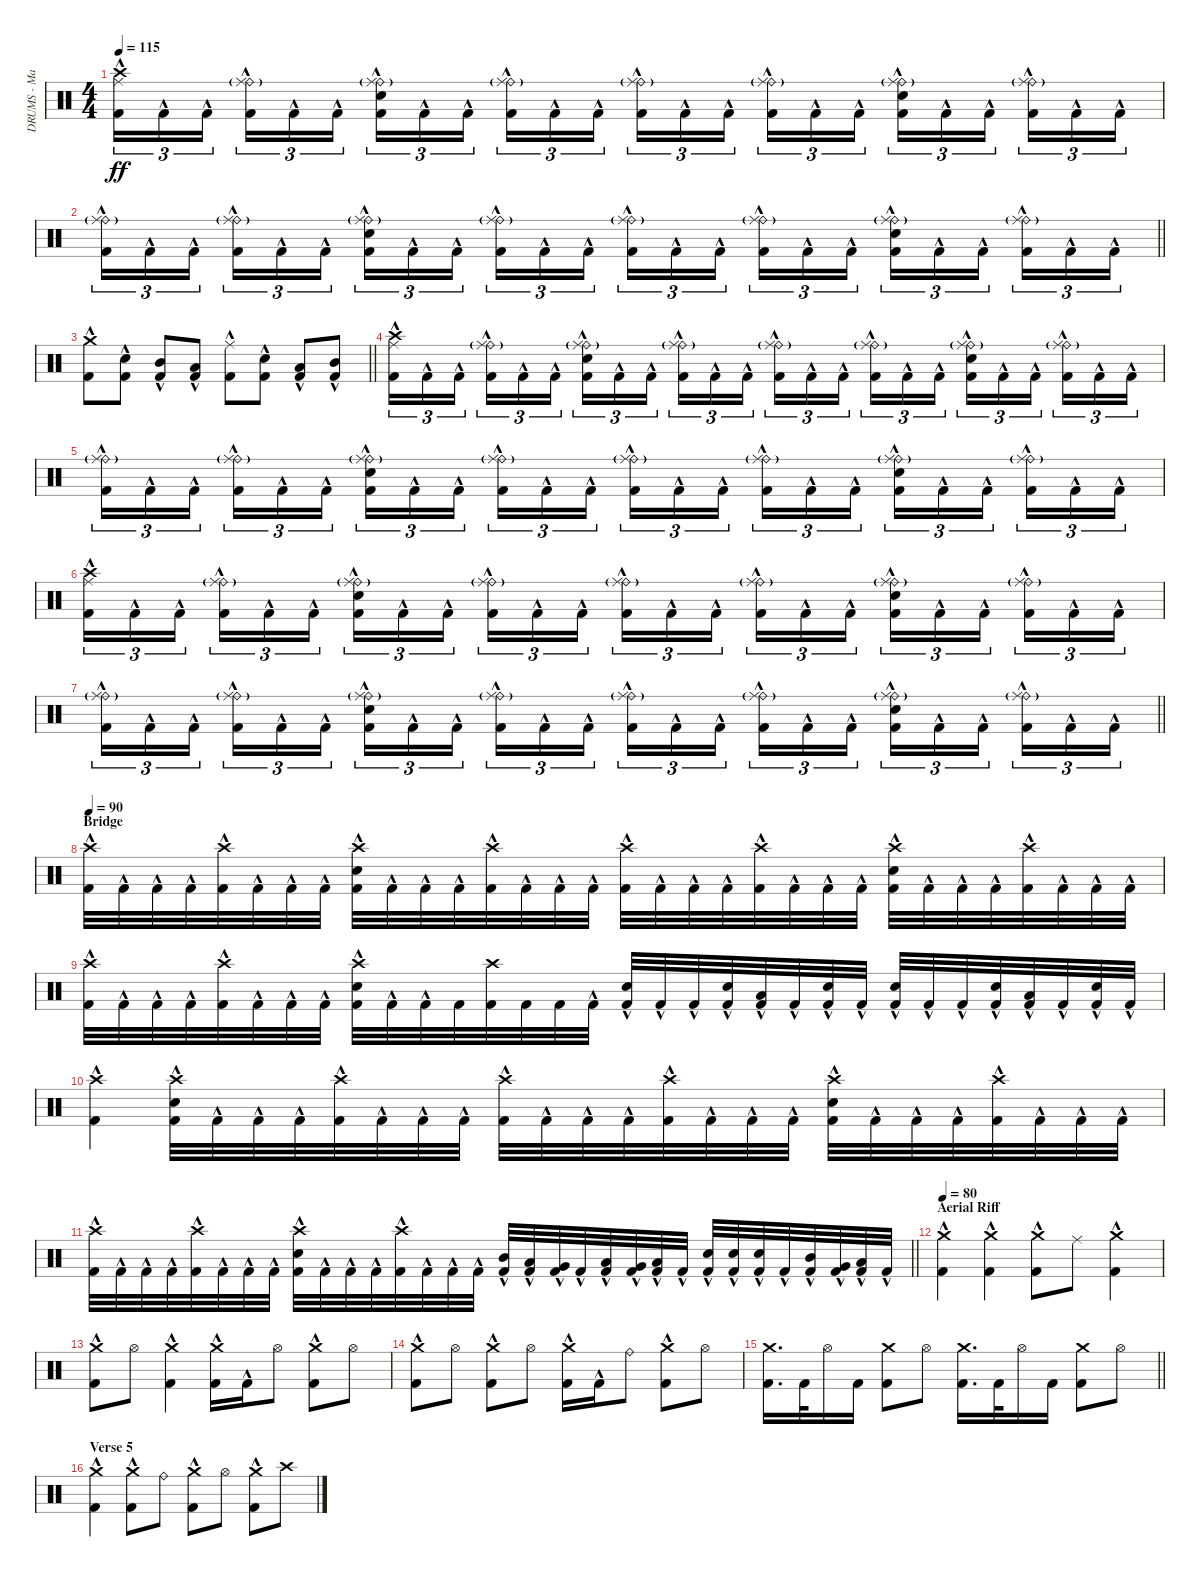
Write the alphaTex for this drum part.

\track ("DRUMS - Mario Duplantier" "DRUMS - Ma") {instrument percussion}
\staff {score}
\articulation defaults
\ts (4 4)
\tempo 115
\clef neutral
\ks c
("Crash high (hit)" "Ride (middle)" "Kick (hit) 2"{hac}).16{tu (3 2) dy ff} "Kick (hit) 2"{hac}.16{tu (3 2)} "Kick (hit) 2"{hac}.16{tu (3 2) beam splitsecondary} ("Ride (bell)"{g} "Ride (middle)" "Kick (hit) 2"{hac}).16{tu (3 2)} "Kick (hit) 2"{hac}.16{tu (3 2)} "Kick (hit) 2"{hac}.16{tu (3 2)} ("Ride (bell)"{g} "Ride (middle)" "Electric Snare (hit)" "Kick (hit) 2"{hac}).16{tu (3 2)} "Kick (hit) 2"{hac}.16{tu (3 2)} "Kick (hit) 2"{hac}.16{tu (3 2) beam splitsecondary} ("Ride (bell)"{g} "Ride (middle)" "Kick (hit) 2"{hac}).16{tu (3 2)} "Kick (hit) 2"{hac}.16{tu (3 2)} "Kick (hit) 2"{hac}.16{tu (3 2)} ("Ride (bell)"{g} "Ride (middle)" "Kick (hit) 2"{hac}).16{tu (3 2)} "Kick (hit) 2"{hac}.16{tu (3 2)} "Kick (hit) 2"{hac}.16{tu (3 2) beam splitsecondary} ("Ride (bell)"{g} "Ride (middle)" "Kick (hit) 2"{hac}).16{tu (3 2)} "Kick (hit) 2"{hac}.16{tu (3 2)} "Kick (hit) 2"{hac}.16{tu (3 2)} ("Ride (bell)"{g} "Ride (middle)" "Electric Snare (hit)" "Kick (hit) 2"{hac}).16{tu (3 2)} "Kick (hit) 2"{hac}.16{tu (3 2)} "Kick (hit) 2"{hac}.16{tu (3 2) beam splitsecondary} ("Ride (bell)"{g} "Ride (middle)" "Kick (hit) 2"{hac}).16{tu (3 2)} "Kick (hit) 2"{hac}.16{tu (3 2)} "Kick (hit) 2"{hac}.16{tu (3 2)} |
\barLineRight lightlight
("Ride (bell)"{g} "Ride (middle)" "Kick (hit) 2"{hac}).16{tu (3 2)} "Kick (hit) 2"{hac}.16{tu (3 2)} "Kick (hit) 2"{hac}.16{tu (3 2) beam splitsecondary} ("Ride (bell)"{g} "Ride (middle)" "Kick (hit) 2"{hac}).16{tu (3 2)} "Kick (hit) 2"{hac}.16{tu (3 2)} "Kick (hit) 2"{hac}.16{tu (3 2)} ("Ride (bell)"{g} "Ride (middle)" "Electric Snare (hit)" "Kick (hit) 2"{hac}).16{tu (3 2)} "Kick (hit) 2"{hac}.16{tu (3 2)} "Kick (hit) 2"{hac}.16{tu (3 2) beam splitsecondary} ("Ride (bell)"{g} "Ride (middle)" "Kick (hit) 2"{hac}).16{tu (3 2)} "Kick (hit) 2"{hac}.16{tu (3 2)} "Kick (hit) 2"{hac}.16{tu (3 2)} ("Ride (bell)"{g} "Ride (middle)" "Kick (hit) 2"{hac}).16{tu (3 2)} "Kick (hit) 2"{hac}.16{tu (3 2)} "Kick (hit) 2"{hac}.16{tu (3 2) beam splitsecondary} ("Ride (bell)"{g} "Ride (middle)" "Kick (hit) 2"{hac}).16{tu (3 2)} "Kick (hit) 2"{hac}.16{tu (3 2)} "Kick (hit) 2"{hac}.16{tu (3 2)} ("Ride (bell)"{g} "Ride (middle)" "Electric Snare (hit)" "Kick (hit) 2"{hac}).16{tu (3 2)} "Kick (hit) 2"{hac}.16{tu (3 2)} "Kick (hit) 2"{hac}.16{tu (3 2) beam splitsecondary} ("Ride (bell)"{g} "Ride (middle)" "Kick (hit) 2"{hac}).16{tu (3 2)} "Kick (hit) 2"{hac}.16{tu (3 2)} "Kick (hit) 2"{hac}.16{tu (3 2)} |
\section ("" "")
\barLineRight lightlight
("Crash medium (hit)" "Kick (hit) 2"{hac}).8 ("Electric Snare (hit)" "Kick (hit) 2"{hac}).8 ("Mid Tom (hit)" "Kick (hit) 2"{hac}).8 ("Low Tom (hit)" "Kick (hit) 2"{hac}).8 ("Ride (middle)" "Kick (hit) 2"{hac}).8 ("Electric Snare (hit)" "Kick (hit) 2"{hac}).8 ("Low Tom (hit)" "Kick (hit) 2"{hac}).8 ("Mid Tom (hit)" "Kick (hit) 2"{hac}).8 |
\section ("" "")
("Crash high (hit)" "Ride (middle)" "Kick (hit) 2"{hac}).16{tu (3 2)} "Kick (hit) 2"{hac}.16{tu (3 2)} "Kick (hit) 2"{hac}.16{tu (3 2) beam splitsecondary} ("Ride (bell)"{g} "Ride (middle)" "Kick (hit) 2"{hac}).16{tu (3 2)} "Kick (hit) 2"{hac}.16{tu (3 2)} "Kick (hit) 2"{hac}.16{tu (3 2)} ("Ride (bell)"{g} "Ride (middle)" "Electric Snare (hit)" "Kick (hit) 2"{hac}).16{tu (3 2)} "Kick (hit) 2"{hac}.16{tu (3 2)} "Kick (hit) 2"{hac}.16{tu (3 2) beam splitsecondary} ("Ride (bell)"{g} "Ride (middle)" "Kick (hit) 2"{hac}).16{tu (3 2)} "Kick (hit) 2"{hac}.16{tu (3 2)} "Kick (hit) 2"{hac}.16{tu (3 2)} ("Ride (bell)"{g} "Ride (middle)" "Kick (hit) 2"{hac}).16{tu (3 2)} "Kick (hit) 2"{hac}.16{tu (3 2)} "Kick (hit) 2"{hac}.16{tu (3 2) beam splitsecondary} ("Ride (bell)"{g} "Ride (middle)" "Kick (hit) 2"{hac}).16{tu (3 2)} "Kick (hit) 2"{hac}.16{tu (3 2)} "Kick (hit) 2"{hac}.16{tu (3 2)} ("Ride (bell)"{g} "Ride (middle)" "Electric Snare (hit)" "Kick (hit) 2"{hac}).16{tu (3 2)} "Kick (hit) 2"{hac}.16{tu (3 2)} "Kick (hit) 2"{hac}.16{tu (3 2) beam splitsecondary} ("Ride (bell)"{g} "Ride (middle)" "Kick (hit) 2"{hac}).16{tu (3 2)} "Kick (hit) 2"{hac}.16{tu (3 2)} "Kick (hit) 2"{hac}.16{tu (3 2)} |
("Ride (bell)"{g} "Ride (middle)" "Kick (hit) 2"{hac}).16{tu (3 2)} "Kick (hit) 2"{hac}.16{tu (3 2)} "Kick (hit) 2"{hac}.16{tu (3 2) beam splitsecondary} ("Ride (bell)"{g} "Ride (middle)" "Kick (hit) 2"{hac}).16{tu (3 2)} "Kick (hit) 2"{hac}.16{tu (3 2)} "Kick (hit) 2"{hac}.16{tu (3 2)} ("Ride (bell)"{g} "Ride (middle)" "Electric Snare (hit)" "Kick (hit) 2"{hac}).16{tu (3 2)} "Kick (hit) 2"{hac}.16{tu (3 2)} "Kick (hit) 2"{hac}.16{tu (3 2) beam splitsecondary} ("Ride (bell)"{g} "Ride (middle)" "Kick (hit) 2"{hac}).16{tu (3 2)} "Kick (hit) 2"{hac}.16{tu (3 2)} "Kick (hit) 2"{hac}.16{tu (3 2)} ("Ride (bell)"{g} "Ride (middle)" "Kick (hit) 2"{hac}).16{tu (3 2)} "Kick (hit) 2"{hac}.16{tu (3 2)} "Kick (hit) 2"{hac}.16{tu (3 2) beam splitsecondary} ("Ride (bell)"{g} "Ride (middle)" "Kick (hit) 2"{hac}).16{tu (3 2)} "Kick (hit) 2"{hac}.16{tu (3 2)} "Kick (hit) 2"{hac}.16{tu (3 2)} ("Ride (bell)"{g} "Ride (middle)" "Electric Snare (hit)" "Kick (hit) 2"{hac}).16{tu (3 2)} "Kick (hit) 2"{hac}.16{tu (3 2)} "Kick (hit) 2"{hac}.16{tu (3 2) beam splitsecondary} ("Ride (bell)"{g} "Ride (middle)" "Kick (hit) 2"{hac}).16{tu (3 2)} "Kick (hit) 2"{hac}.16{tu (3 2)} "Kick (hit) 2"{hac}.16{tu (3 2)} |
("Crash high (hit)" "Ride (middle)" "Kick (hit) 2"{hac}).16{tu (3 2)} "Kick (hit) 2"{hac}.16{tu (3 2)} "Kick (hit) 2"{hac}.16{tu (3 2) beam splitsecondary} ("Ride (bell)"{g} "Ride (middle)" "Kick (hit) 2"{hac}).16{tu (3 2)} "Kick (hit) 2"{hac}.16{tu (3 2)} "Kick (hit) 2"{hac}.16{tu (3 2)} ("Ride (bell)"{g} "Ride (middle)" "Electric Snare (hit)" "Kick (hit) 2"{hac}).16{tu (3 2)} "Kick (hit) 2"{hac}.16{tu (3 2)} "Kick (hit) 2"{hac}.16{tu (3 2) beam splitsecondary} ("Ride (bell)"{g} "Ride (middle)" "Kick (hit) 2"{hac}).16{tu (3 2)} "Kick (hit) 2"{hac}.16{tu (3 2)} "Kick (hit) 2"{hac}.16{tu (3 2)} ("Ride (bell)"{g} "Ride (middle)" "Kick (hit) 2"{hac}).16{tu (3 2)} "Kick (hit) 2"{hac}.16{tu (3 2)} "Kick (hit) 2"{hac}.16{tu (3 2) beam splitsecondary} ("Ride (bell)"{g} "Ride (middle)" "Kick (hit) 2"{hac}).16{tu (3 2)} "Kick (hit) 2"{hac}.16{tu (3 2)} "Kick (hit) 2"{hac}.16{tu (3 2)} ("Ride (bell)"{g} "Ride (middle)" "Electric Snare (hit)" "Kick (hit) 2"{hac}).16{tu (3 2)} "Kick (hit) 2"{hac}.16{tu (3 2)} "Kick (hit) 2"{hac}.16{tu (3 2) beam splitsecondary} ("Ride (bell)"{g} "Ride (middle)" "Kick (hit) 2"{hac}).16{tu (3 2)} "Kick (hit) 2"{hac}.16{tu (3 2)} "Kick (hit) 2"{hac}.16{tu (3 2)} |
\barLineRight lightlight
("Ride (bell)"{g} "Ride (middle)" "Kick (hit) 2"{hac}).16{tu (3 2)} "Kick (hit) 2"{hac}.16{tu (3 2)} "Kick (hit) 2"{hac}.16{tu (3 2) beam splitsecondary} ("Ride (bell)"{g} "Ride (middle)" "Kick (hit) 2"{hac}).16{tu (3 2)} "Kick (hit) 2"{hac}.16{tu (3 2)} "Kick (hit) 2"{hac}.16{tu (3 2)} ("Ride (bell)"{g} "Ride (middle)" "Electric Snare (hit)" "Kick (hit) 2"{hac}).16{tu (3 2)} "Kick (hit) 2"{hac}.16{tu (3 2)} "Kick (hit) 2"{hac}.16{tu (3 2) beam splitsecondary} ("Ride (bell)"{g} "Ride (middle)" "Kick (hit) 2"{hac}).16{tu (3 2)} "Kick (hit) 2"{hac}.16{tu (3 2)} "Kick (hit) 2"{hac}.16{tu (3 2)} ("Ride (bell)"{g} "Ride (middle)" "Kick (hit) 2"{hac}).16{tu (3 2)} "Kick (hit) 2"{hac}.16{tu (3 2)} "Kick (hit) 2"{hac}.16{tu (3 2) beam splitsecondary} ("Ride (bell)"{g} "Ride (middle)" "Kick (hit) 2"{hac}).16{tu (3 2)} "Kick (hit) 2"{hac}.16{tu (3 2)} "Kick (hit) 2"{hac}.16{tu (3 2)} ("Ride (bell)"{g} "Ride (middle)" "Electric Snare (hit)" "Kick (hit) 2"{hac}).16{tu (3 2)} "Kick (hit) 2"{hac}.16{tu (3 2)} "Kick (hit) 2"{hac}.16{tu (3 2) beam splitsecondary} ("Ride (bell)"{g} "Ride (middle)" "Kick (hit) 2"{hac}).16{tu (3 2)} "Kick (hit) 2"{hac}.16{tu (3 2)} "Kick (hit) 2"{hac}.16{tu (3 2)} |
\section ("" "Bridge")
\tempo 90
("Crash high (hit)" "Kick (hit) 2"{hac}).32 "Kick (hit) 2"{hac}.32 "Kick (hit) 2"{hac}.32 "Kick (hit) 2"{hac}.32 ("Crash high (hit)" "Kick (hit) 2"{hac}).32 "Kick (hit) 2"{hac}.32 "Kick (hit) 2"{hac}.32 "Kick (hit) 2"{hac}.32 ("Crash high (hit)" "Electric Snare (hit)" "Kick (hit) 2"{hac}).32 "Kick (hit) 2"{hac}.32 "Kick (hit) 2"{hac}.32 "Kick (hit) 2"{hac}.32 ("Crash high (hit)" "Kick (hit) 2"{hac}).32 "Kick (hit) 2"{hac}.32 "Kick (hit) 2"{hac}.32 "Kick (hit) 2"{hac}.32 ("Crash high (hit)" "Kick (hit) 2"{hac}).32 "Kick (hit) 2"{hac}.32 "Kick (hit) 2"{hac}.32 "Kick (hit) 2"{hac}.32 ("Crash high (hit)" "Kick (hit) 2"{hac}).32 "Kick (hit) 2"{hac}.32 "Kick (hit) 2"{hac}.32 "Kick (hit) 2"{hac}.32 ("Crash high (hit)" "Electric Snare (hit)" "Kick (hit) 2"{hac}).32 "Kick (hit) 2"{hac}.32 "Kick (hit) 2"{hac}.32 "Kick (hit) 2"{hac}.32 ("Crash high (hit)" "Kick (hit) 2"{hac}).32 "Kick (hit) 2"{hac}.32 "Kick (hit) 2"{hac}.32 "Kick (hit) 2"{hac}.32 |
("Crash high (hit)" "Kick (hit) 2"{hac}).32 "Kick (hit) 2"{hac}.32 "Kick (hit) 2"{hac}.32 "Kick (hit) 2"{hac}.32 ("Crash high (hit)" "Kick (hit) 2"{hac}).32 "Kick (hit) 2"{hac}.32 "Kick (hit) 2"{hac}.32 "Kick (hit) 2"{hac}.32 ("Crash high (hit)" "Electric Snare (hit)" "Kick (hit) 2"{hac}).32 "Kick (hit) 2"{hac}.32 "Kick (hit) 2"{hac}.32 "Kick (hit) 2".32 ("Crash high (hit)" "Kick (hit) 2").32 "Kick (hit) 2".32 "Kick (hit) 2".32 "Kick (hit) 2"{hac}.32 ("Electric Snare (hit)" "Kick (hit) 2"{hac}).32 "Kick (hit) 2"{hac}.32 "Kick (hit) 2"{hac}.32 ("Electric Snare (hit)" "Kick (hit) 2"{hac}).32 ("Low Tom (hit)" "Kick (hit) 2"{hac}).32 "Kick (hit) 2"{hac}.32 ("Electric Snare (hit)" "Kick (hit) 2"{hac}).32 "Kick (hit) 2"{hac}.32 ("Electric Snare (hit)" "Kick (hit) 2"{hac}).32 "Kick (hit) 2"{hac}.32 "Kick (hit) 2"{hac}.32 ("Electric Snare (hit)" "Kick (hit) 2"{hac}).32 ("Low Tom (hit)" "Kick (hit) 2"{hac}).32 "Kick (hit) 2"{hac}.32 ("Electric Snare (hit)" "Kick (hit) 2"{hac}).32 "Kick (hit) 2"{hac}.32 |
("Crash high (hit)" "Kick (hit) 2"{hac}).4 ("Crash high (hit)" "Electric Snare (hit)" "Kick (hit) 2"{hac}).32 "Kick (hit) 2"{hac}.32 "Kick (hit) 2"{hac}.32 "Kick (hit) 2"{hac}.32 ("Crash high (hit)" "Kick (hit) 2"{hac}).32 "Kick (hit) 2"{hac}.32 "Kick (hit) 2"{hac}.32 "Kick (hit) 2"{hac}.32 ("Crash high (hit)" "Kick (hit) 2"{hac}).32 "Kick (hit) 2"{hac}.32 "Kick (hit) 2"{hac}.32 "Kick (hit) 2"{hac}.32 ("Crash high (hit)" "Kick (hit) 2"{hac}).32 "Kick (hit) 2"{hac}.32 "Kick (hit) 2"{hac}.32 "Kick (hit) 2"{hac}.32 ("Crash high (hit)" "Electric Snare (hit)" "Kick (hit) 2"{hac}).32 "Kick (hit) 2"{hac}.32 "Kick (hit) 2"{hac}.32 "Kick (hit) 2"{hac}.32 ("Crash high (hit)" "Kick (hit) 2"{hac}).32 "Kick (hit) 2"{hac}.32 "Kick (hit) 2"{hac}.32 "Kick (hit) 2"{hac}.32 |
\barLineRight lightlight
("Crash high (hit)" "Kick (hit) 2"{hac}).32 "Kick (hit) 2"{hac}.32 "Kick (hit) 2"{hac}.32 "Kick (hit) 2"{hac}.32 ("Crash high (hit)" "Kick (hit) 2"{hac}).32 "Kick (hit) 2"{hac}.32 "Kick (hit) 2"{hac}.32 "Kick (hit) 2"{hac}.32 ("Crash high (hit)" "Electric Snare (hit)" "Kick (hit) 2"{hac}).32 "Kick (hit) 2"{hac}.32 "Kick (hit) 2"{hac}.32 "Kick (hit) 2"{hac}.32 ("Crash high (hit)" "Kick (hit) 2"{hac}).32 "Kick (hit) 2"{hac}.32 "Kick (hit) 2"{hac}.32 "Kick (hit) 2"{hac}.32 ("Mid Tom (hit)" "Kick (hit) 2"{hac}).32 ("Low Tom (hit)" "Kick (hit) 2"{hac}).32 ("Very Low Tom (hit)" "Kick (hit) 2"{hac}).32 "Kick (hit) 2"{hac}.32 ("Low Tom (hit)" "Kick (hit) 2"{hac}).32 ("Very Low Tom (hit)" "Kick (hit) 2"{hac}).32 ("Low Floor Tom (hit)" "Kick (hit) 2"{hac}).32 "Kick (hit) 2"{hac}.32 ("Electric Snare (hit)" "Kick (hit) 2"{hac}).32 ("Electric Snare (hit)" "Kick (hit) 2"{hac}).32 ("Electric Snare (hit)" "Kick (hit) 2"{hac}).32 "Kick (hit) 2"{hac}.32 ("Mid Tom (hit)" "Kick (hit) 2"{hac}).32 ("Very Low Tom (hit)" "Kick (hit) 2"{hac}).32 ("Low Floor Tom (hit)" "Kick (hit) 2"{hac}).32 "Kick (hit) 2"{hac}.32 |
\section ("" "Aerial Riff")
\tempo 80
("Crash medium (hit)" "Kick (hit) 2"{hac}).4 ("Crash medium (hit)" "Kick (hit) 2"{hac}).4 ("Crash medium (hit)" "Kick (hit) 2"{hac}).8 "Ride (middle)".8 ("Crash medium (hit)" "Kick (hit) 2"{hac}).4 |
("Crash medium (hit)" "Kick (hit) 2"{hac}).8 "Hi-Hat (open)".8 ("Crash medium (hit)" "Kick (hit) 2"{hac}).4 ("Crash medium (hit)" "Kick (hit) 2"{hac}).16 "Kick (hit) 2"{hac}.16 "Hi-Hat (open)".8 ("Crash medium (hit)" "Kick (hit) 2"{hac}).8 "Hi-Hat (open)".8 |
("Crash medium (hit)" "Kick (hit) 2"{hac}).8 "Hi-Hat (open)".8 ("Crash medium (hit)" "Kick (hit) 2"{hac}).8 "Hi-Hat (open)".8 ("Crash medium (hit)" "Kick (hit) 2"{hac}).16 "Kick (hit) 2"{hac}.16 "Ride (bell)".8 ("Crash medium (hit)" "Kick (hit) 2"{hac}).8 "Hi-Hat (open)".8 |
\barLineRight lightlight
("Crash medium (hit)" "Kick (hit) 2").16{d} "Kick (hit) 2".32 "Hi-Hat (open)".16 "Kick (hit) 2".16 ("Crash medium (hit)" "Kick (hit) 2").8 "Hi-Hat (open)".8 ("Crash medium (hit)" "Kick (hit) 2").16{d} "Kick (hit) 2".32 "Hi-Hat (open)".16 "Kick (hit) 2".16 ("Crash medium (hit)" "Kick (hit) 2").8 "Hi-Hat (open)".8 |
\section ("" "Verse 5")
("Crash medium (hit)" "Kick (hit) 2"{hac}).4 ("Crash medium (hit)" "Kick (hit) 2"{hac}).8 "Ride (bell)".8 ("Crash medium (hit)" "Kick (hit) 2"{hac}).8 "Hi-Hat (open)".8 ("Crash medium (hit)" "Kick (hit) 2"{hac}).8 "Crash high (hit)".8
